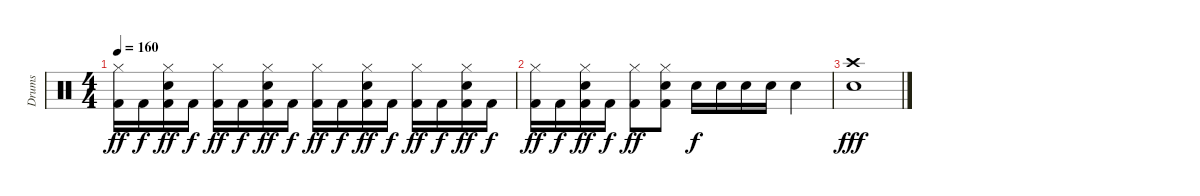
\track ("Drums" "Drums") {instrument percussion}
\staff {score}
\articulation defaults
\ts (4 4)
\tempo 160
\clef neutral
\ks c
("Hi-Hat (closed)" "Kick (hit) 2").16{dy ff} "Kick (hit) 2".16{dy f} ("Hi-Hat (closed)" "Snare (hit) 2" "Kick (hit) 2").16{dy ff} "Kick (hit) 2".16{dy f} ("Hi-Hat (closed)" "Kick (hit) 2").16{dy ff} "Kick (hit) 2".16{dy f} ("Hi-Hat (closed)" "Snare (hit) 2" "Kick (hit) 2").16{dy ff} "Kick (hit) 2".16{dy f} ("Hi-Hat (closed)" "Kick (hit) 2").16{dy ff} "Kick (hit) 2".16{dy f} ("Hi-Hat (closed)" "Snare (hit) 2" "Kick (hit) 2").16{dy ff} "Kick (hit) 2".16{dy f} ("Hi-Hat (closed)" "Kick (hit) 2").16{dy ff} "Kick (hit) 2".16{dy f} ("Hi-Hat (closed)" "Snare (hit) 2" "Kick (hit) 2").16{dy ff} "Kick (hit) 2".16{dy f} |
("Hi-Hat (closed)" "Kick (hit) 2").16{dy ff} "Kick (hit) 2".16{dy f} ("Hi-Hat (closed)" "Snare (hit) 2" "Kick (hit) 2").16{dy ff} "Kick (hit) 2".16{dy f} ("Hi-Hat (closed)" "Kick (hit) 2").8{dy ff} ("Hi-Hat (closed)" "Snare (hit) 2" "Kick (hit) 2").8 "Snare (hit) 2".16{dy f} "Snare (hit) 2".16 "Snare (hit) 2".16 "Snare (hit) 2".16 "Snare (hit) 2".4 |
("Crash high (hit)" "Snare (hit) 2").1{dy fff}
